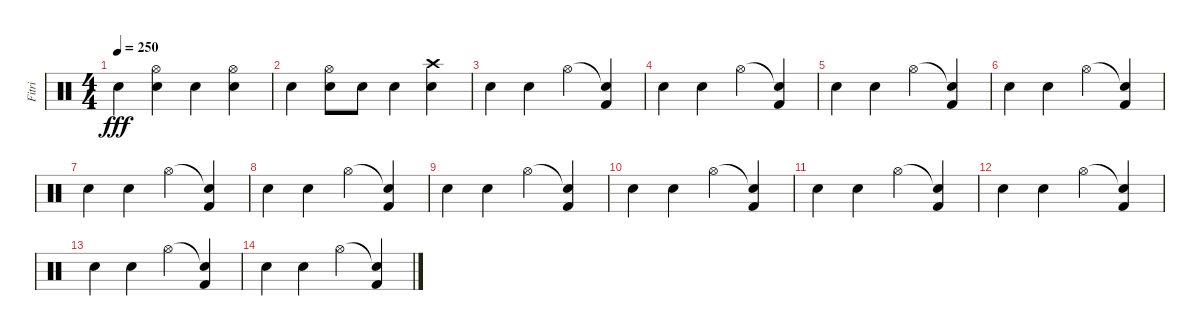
\track ("Fitri" "Fitri") {instrument percussion}
\staff {score}
\articulation defaults
\ts (4 4)
\tempo 250
\clef neutral
\ks c "Snare (hit) 2".4{dy fff}
("Hi-Hat (open)" "Snare (hit) 2").4 "Snare (hit) 2".4 ("Hi-Hat (open)" "Snare (hit) 2").4 |
"Snare (hit) 2".4 ("Hi-Hat (open)" "Snare (hit) 2").8 "Snare (hit) 2".8 "Snare (hit) 2".4 ("Crash high (hit)" "Snare (hit) 2").4 |
"Snare (hit) 2".4 "Snare (hit) 2".4 "Hi-Hat (open)".4 ("Snare (hit)"{t} "Kick (hit) 2").4 |
"Snare (hit) 2".4 "Snare (hit) 2".4 "Hi-Hat (open)".4 ("Snare (hit)"{t} "Kick (hit) 2").4 |
"Snare (hit) 2".4 "Snare (hit) 2".4 "Hi-Hat (open)".4 ("Snare (hit)"{t} "Kick (hit) 2").4 |
"Snare (hit) 2".4 "Snare (hit) 2".4 "Hi-Hat (open)".4 ("Snare (hit)"{t} "Kick (hit) 2").4 |
"Snare (hit) 2".4 "Snare (hit) 2".4 "Hi-Hat (open)".4 ("Snare (hit)"{t} "Kick (hit) 2").4 |
"Snare (hit) 2".4 "Snare (hit) 2".4 "Hi-Hat (open)".4 ("Snare (hit)"{t} "Kick (hit) 2").4 |
"Snare (hit) 2".4 "Snare (hit) 2".4 "Hi-Hat (open)".4 ("Snare (hit)"{t} "Kick (hit) 2").4 |
"Snare (hit) 2".4 "Snare (hit) 2".4 "Hi-Hat (open)".4 ("Snare (hit)"{t} "Kick (hit) 2").4 |
"Snare (hit) 2".4 "Snare (hit) 2".4 "Hi-Hat (open)".4 ("Snare (hit)"{t} "Kick (hit) 2").4 |
"Snare (hit) 2".4 "Snare (hit) 2".4 "Hi-Hat (open)".4 ("Snare (hit)"{t} "Kick (hit) 2").4 |
"Snare (hit) 2".4 "Snare (hit) 2".4 "Hi-Hat (open)".4 ("Snare (hit)"{t} "Kick (hit) 2").4 |
"Snare (hit) 2".4 "Snare (hit) 2".4 "Hi-Hat (open)".4 ("Snare (hit)"{t} "Kick (hit) 2").4
